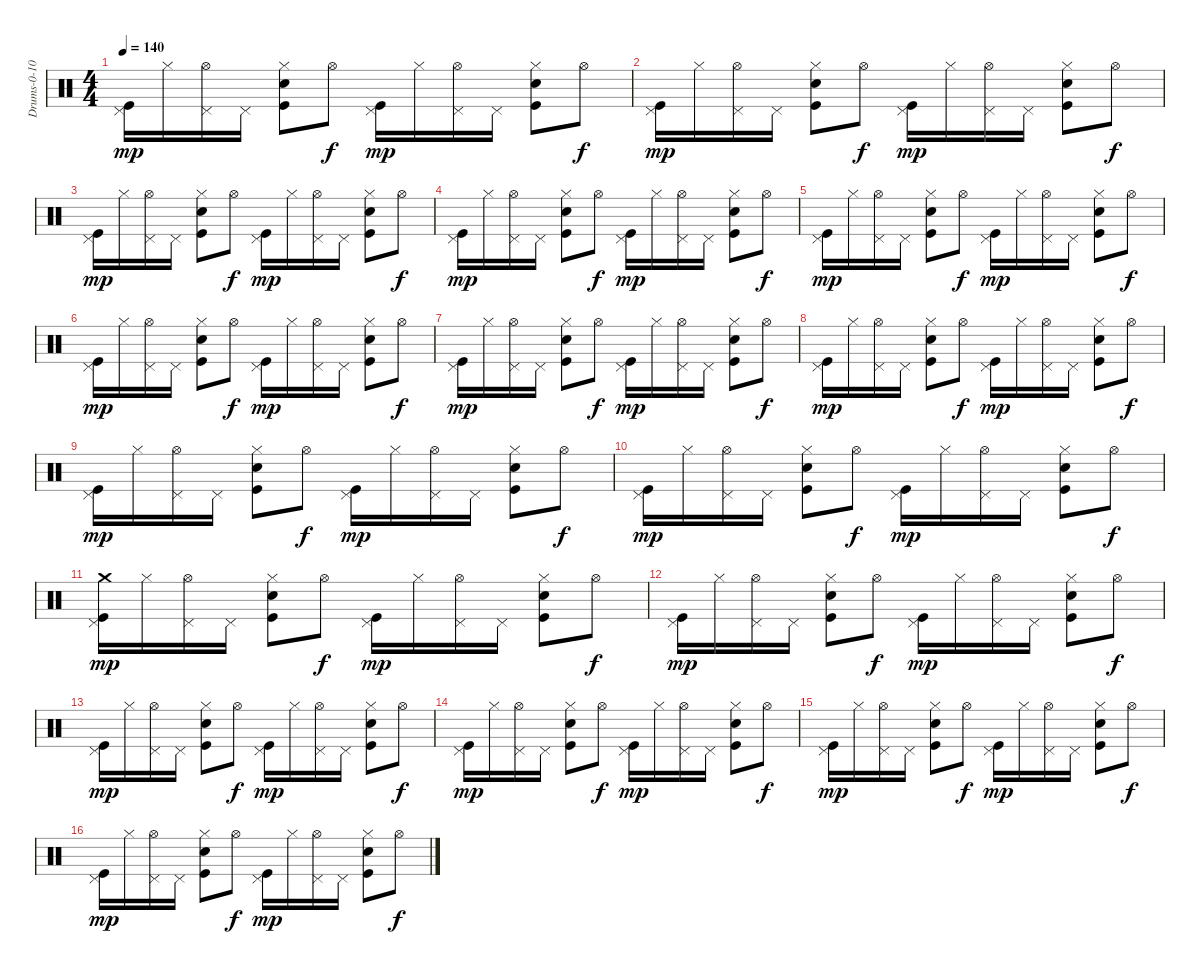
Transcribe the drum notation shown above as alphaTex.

\track ("Drums-0-10" "Drums-0-10") {instrument percussion}
\staff {score}
\articulation defaults
\ts (4 4)
\tempo 140
\clef neutral
\ks c
("Pedal Hi-Hat (hit)" "Kick (hit)").16{dy mp} "Hi-Hat (closed)".16 ("Pedal Hi-Hat (hit)" "Hi-Hat (open)").16 "Pedal Hi-Hat (hit)".16 ("Kick (hit)" "Hand Clap (hit)" "Hi-Hat (closed)").8 "Hi-Hat (open)".8{dy f} ("Kick (hit)" "Pedal Hi-Hat (hit)").16{dy mp} "Hi-Hat (closed)".16 ("Hi-Hat (open)" "Pedal Hi-Hat (hit)").16 "Pedal Hi-Hat (hit)".16 ("Kick (hit)" "Hi-Hat (closed)" "Hand Clap (hit)").8 "Hi-Hat (open)".8{dy f} |
("Pedal Hi-Hat (hit)" "Kick (hit)").16{dy mp} "Hi-Hat (closed)".16 ("Pedal Hi-Hat (hit)" "Hi-Hat (open)").16 "Pedal Hi-Hat (hit)".16 ("Hand Clap (hit)" "Kick (hit)" "Hi-Hat (closed)").8 "Hi-Hat (open)".8{dy f} ("Kick (hit)" "Pedal Hi-Hat (hit)").16{dy mp} "Hi-Hat (closed)".16 ("Hi-Hat (open)" "Pedal Hi-Hat (hit)").16 "Pedal Hi-Hat (hit)".16 ("Kick (hit)" "Hand Clap (hit)" "Hi-Hat (closed)").8 "Hi-Hat (open)".8{dy f} |
("Kick (hit)" "Pedal Hi-Hat (hit)").16{dy mp} "Hi-Hat (closed)".16 ("Pedal Hi-Hat (hit)" "Hi-Hat (open)").16 "Pedal Hi-Hat (hit)".16 ("Kick (hit)" "Hand Clap (hit)" "Hi-Hat (closed)").8 "Hi-Hat (open)".8{dy f} ("Kick (hit)" "Pedal Hi-Hat (hit)").16{dy mp} "Hi-Hat (closed)".16 ("Pedal Hi-Hat (hit)" "Hi-Hat (open)").16 "Pedal Hi-Hat (hit)".16 ("Kick (hit)" "Hand Clap (hit)" "Hi-Hat (closed)").8 "Hi-Hat (open)".8{dy f} |
("Kick (hit)" "Pedal Hi-Hat (hit)").16{dy mp} "Hi-Hat (closed)".16 ("Pedal Hi-Hat (hit)" "Hi-Hat (open)").16 "Pedal Hi-Hat (hit)".16 ("Kick (hit)" "Hand Clap (hit)" "Hi-Hat (closed)").8 "Hi-Hat (open)".8{dy f} ("Kick (hit)" "Pedal Hi-Hat (hit)").16{dy mp} "Hi-Hat (closed)".16 ("Pedal Hi-Hat (hit)" "Hi-Hat (open)").16 "Pedal Hi-Hat (hit)".16 ("Kick (hit)" "Hand Clap (hit)" "Hi-Hat (closed)").8 "Hi-Hat (open)".8{dy f} |
("Kick (hit)" "Pedal Hi-Hat (hit)").16{dy mp} "Hi-Hat (closed)".16 ("Pedal Hi-Hat (hit)" "Hi-Hat (open)").16 "Pedal Hi-Hat (hit)".16 ("Kick (hit)" "Hand Clap (hit)" "Hi-Hat (closed)").8 "Hi-Hat (open)".8{dy f} ("Kick (hit)" "Pedal Hi-Hat (hit)").16{dy mp} "Hi-Hat (closed)".16 ("Pedal Hi-Hat (hit)" "Hi-Hat (open)").16 "Pedal Hi-Hat (hit)".16 ("Kick (hit)" "Hand Clap (hit)" "Hi-Hat (closed)").8 "Hi-Hat (open)".8{dy f} |
("Kick (hit)" "Pedal Hi-Hat (hit)").16{dy mp} "Hi-Hat (closed)".16 ("Pedal Hi-Hat (hit)" "Hi-Hat (open)").16 "Pedal Hi-Hat (hit)".16 ("Kick (hit)" "Hand Clap (hit)" "Hi-Hat (closed)").8 "Hi-Hat (open)".8{dy f} ("Kick (hit)" "Pedal Hi-Hat (hit)").16{dy mp} "Hi-Hat (closed)".16 ("Pedal Hi-Hat (hit)" "Hi-Hat (open)").16 "Pedal Hi-Hat (hit)".16 ("Kick (hit)" "Hand Clap (hit)" "Hi-Hat (closed)").8 "Hi-Hat (open)".8{dy f} |
("Kick (hit)" "Pedal Hi-Hat (hit)").16{dy mp} "Hi-Hat (closed)".16 ("Pedal Hi-Hat (hit)" "Hi-Hat (open)").16 "Pedal Hi-Hat (hit)".16 ("Kick (hit)" "Hand Clap (hit)" "Hi-Hat (closed)").8 "Hi-Hat (open)".8{dy f} ("Kick (hit)" "Pedal Hi-Hat (hit)").16{dy mp} "Hi-Hat (closed)".16 ("Pedal Hi-Hat (hit)" "Hi-Hat (open)").16 "Pedal Hi-Hat (hit)".16 ("Kick (hit)" "Hand Clap (hit)" "Hi-Hat (closed)").8 "Hi-Hat (open)".8{dy f} |
("Kick (hit)" "Pedal Hi-Hat (hit)").16{dy mp} "Hi-Hat (closed)".16 ("Pedal Hi-Hat (hit)" "Hi-Hat (open)").16 "Pedal Hi-Hat (hit)".16 ("Kick (hit)" "Hand Clap (hit)" "Hi-Hat (closed)").8 "Hi-Hat (open)".8{dy f} ("Kick (hit)" "Pedal Hi-Hat (hit)").16{dy mp} "Hi-Hat (closed)".16 ("Pedal Hi-Hat (hit)" "Hi-Hat (open)").16 "Pedal Hi-Hat (hit)".16 ("Kick (hit)" "Hand Clap (hit)" "Hi-Hat (closed)").8 "Hi-Hat (open)".8{dy f} |
("Kick (hit)" "Pedal Hi-Hat (hit)").16{dy mp} "Hi-Hat (closed)".16 ("Pedal Hi-Hat (hit)" "Hi-Hat (open)").16 "Pedal Hi-Hat (hit)".16 ("Kick (hit)" "Hand Clap (hit)" "Hi-Hat (closed)").8 "Hi-Hat (open)".8{dy f} ("Kick (hit)" "Pedal Hi-Hat (hit)").16{dy mp} "Hi-Hat (closed)".16 ("Pedal Hi-Hat (hit)" "Hi-Hat (open)").16 "Pedal Hi-Hat (hit)".16 ("Kick (hit)" "Hand Clap (hit)" "Hi-Hat (closed)").8 "Hi-Hat (open)".8{dy f} |
("Kick (hit)" "Pedal Hi-Hat (hit)").16{dy mp} "Hi-Hat (closed)".16 ("Pedal Hi-Hat (hit)" "Hi-Hat (open)").16 "Pedal Hi-Hat (hit)".16 ("Kick (hit)" "Hand Clap (hit)" "Hi-Hat (closed)").8 "Hi-Hat (open)".8{dy f} ("Kick (hit)" "Pedal Hi-Hat (hit)").16{dy mp} "Hi-Hat (closed)".16 ("Pedal Hi-Hat (hit)" "Hi-Hat (open)").16 "Pedal Hi-Hat (hit)".16 ("Kick (hit)" "Hand Clap (hit)" "Hi-Hat (closed)").8 "Hi-Hat (open)".8{dy f} |
("Crash medium (hit)" "Kick (hit)" "Pedal Hi-Hat (hit)").16{dy mp} "Hi-Hat (closed)".16 ("Pedal Hi-Hat (hit)" "Hi-Hat (open)").16 "Pedal Hi-Hat (hit)".16 ("Kick (hit)" "Hand Clap (hit)" "Hi-Hat (closed)").8 "Hi-Hat (open)".8{dy f} ("Kick (hit)" "Pedal Hi-Hat (hit)").16{dy mp} "Hi-Hat (closed)".16 ("Pedal Hi-Hat (hit)" "Hi-Hat (open)").16 "Pedal Hi-Hat (hit)".16 ("Kick (hit)" "Hand Clap (hit)" "Hi-Hat (closed)").8 "Hi-Hat (open)".8{dy f} |
("Kick (hit)" "Pedal Hi-Hat (hit)").16{dy mp} "Hi-Hat (closed)".16 ("Pedal Hi-Hat (hit)" "Hi-Hat (open)").16 "Pedal Hi-Hat (hit)".16 ("Kick (hit)" "Hand Clap (hit)" "Hi-Hat (closed)").8 "Hi-Hat (open)".8{dy f} ("Kick (hit)" "Pedal Hi-Hat (hit)").16{dy mp} "Hi-Hat (closed)".16 ("Pedal Hi-Hat (hit)" "Hi-Hat (open)").16 "Pedal Hi-Hat (hit)".16 ("Kick (hit)" "Hand Clap (hit)" "Hi-Hat (closed)").8 "Hi-Hat (open)".8{dy f} |
("Kick (hit)" "Pedal Hi-Hat (hit)").16{dy mp} "Hi-Hat (closed)".16 ("Pedal Hi-Hat (hit)" "Hi-Hat (open)").16 "Pedal Hi-Hat (hit)".16 ("Kick (hit)" "Hand Clap (hit)" "Hi-Hat (closed)").8 "Hi-Hat (open)".8{dy f} ("Kick (hit)" "Pedal Hi-Hat (hit)").16{dy mp} "Hi-Hat (closed)".16 ("Pedal Hi-Hat (hit)" "Hi-Hat (open)").16 "Pedal Hi-Hat (hit)".16 ("Kick (hit)" "Hand Clap (hit)" "Hi-Hat (closed)").8 "Hi-Hat (open)".8{dy f} |
("Kick (hit)" "Pedal Hi-Hat (hit)").16{dy mp} "Hi-Hat (closed)".16 ("Pedal Hi-Hat (hit)" "Hi-Hat (open)").16 "Pedal Hi-Hat (hit)".16 ("Kick (hit)" "Hand Clap (hit)" "Hi-Hat (closed)").8 "Hi-Hat (open)".8{dy f} ("Kick (hit)" "Pedal Hi-Hat (hit)").16{dy mp} "Hi-Hat (closed)".16 ("Pedal Hi-Hat (hit)" "Hi-Hat (open)").16 "Pedal Hi-Hat (hit)".16 ("Kick (hit)" "Hand Clap (hit)" "Hi-Hat (closed)").8 "Hi-Hat (open)".8{dy f} |
("Kick (hit)" "Pedal Hi-Hat (hit)").16{dy mp} "Hi-Hat (closed)".16 ("Pedal Hi-Hat (hit)" "Hi-Hat (open)").16 "Pedal Hi-Hat (hit)".16 ("Kick (hit)" "Hand Clap (hit)" "Hi-Hat (closed)").8 "Hi-Hat (open)".8{dy f} ("Kick (hit)" "Pedal Hi-Hat (hit)").16{dy mp} "Hi-Hat (closed)".16 ("Pedal Hi-Hat (hit)" "Hi-Hat (open)").16 "Pedal Hi-Hat (hit)".16 ("Kick (hit)" "Hand Clap (hit)" "Hi-Hat (closed)").8 "Hi-Hat (open)".8{dy f} |
("Kick (hit)" "Pedal Hi-Hat (hit)").16{dy mp} "Hi-Hat (closed)".16 ("Pedal Hi-Hat (hit)" "Hi-Hat (open)").16 "Pedal Hi-Hat (hit)".16 ("Kick (hit)" "Hand Clap (hit)" "Hi-Hat (closed)").8 "Hi-Hat (open)".8{dy f} ("Kick (hit)" "Pedal Hi-Hat (hit)").16{dy mp} "Hi-Hat (closed)".16 ("Pedal Hi-Hat (hit)" "Hi-Hat (open)").16 "Pedal Hi-Hat (hit)".16 ("Kick (hit)" "Hand Clap (hit)" "Hi-Hat (closed)").8 "Hi-Hat (open)".8{dy f}
